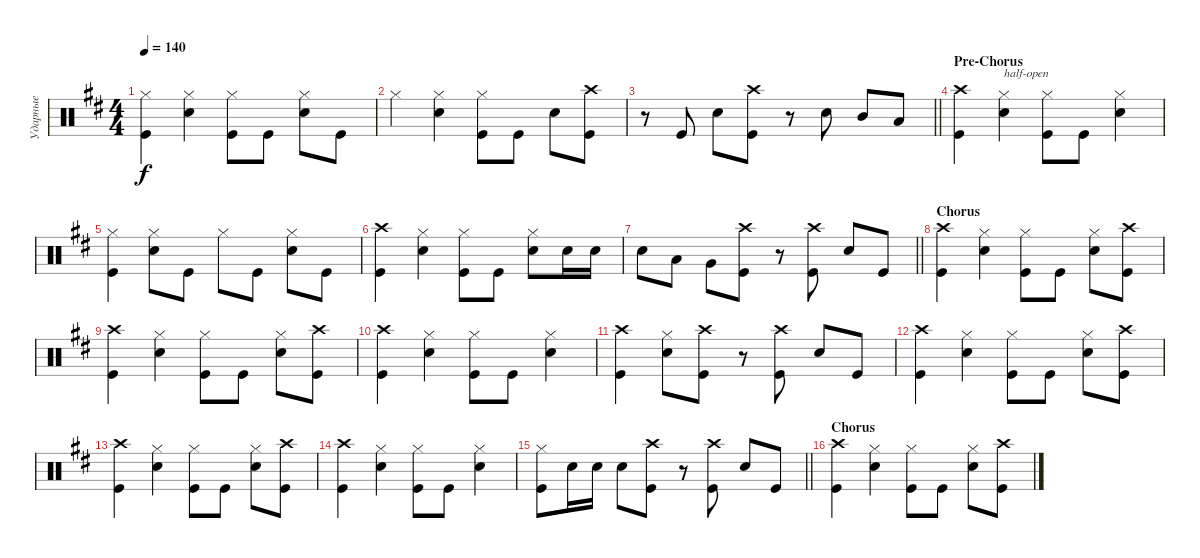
\track ("Ударные" "Ударные") {instrument percussion}
\staff {score}
\articulation defaults
\ts (4 4)
\tempo 140
\clef neutral
\ks bminor
("Kick (hit)" "Hi-Hat (closed)").4{dy f} ("Snare (hit) 2" "Hi-Hat (closed)").4 ("Kick (hit)" "Hi-Hat (closed)").8 "Kick (hit)".8 ("Snare (hit) 2" "Hi-Hat (closed)").8 "Kick (hit)".8 |
"Hi-Hat (closed)".4 ("Snare (hit) 2" "Hi-Hat (closed)").4 ("Kick (hit)" "Hi-Hat (closed)").8 "Kick (hit)".8 "Snare (hit) 2".8 ("Kick (hit)" "Crash high (hit)").8 |
\barLineRight lightlight
r.8 "Kick (hit)".8 "Snare (hit) 2".8 ("Kick (hit)" "Crash high (hit)").8 r.8 "Snare (hit) 2".8 "Mid Tom (hit)".8 "Low Tom (hit)".8 |
\section ("" "Pre-Chorus")
("Kick (hit)" "Crash high (hit)").4 ("Snare (hit) 2" "Hi-Hat (closed)").4{txt "half-open"} ("Kick (hit)" "Hi-Hat (closed)").8 "Kick (hit)".8 ("Snare (hit) 2" "Hi-Hat (closed)").4 |
("Kick (hit)" "Hi-Hat (closed)").4 ("Snare (hit) 2" "Hi-Hat (closed)").8 "Kick (hit)".8 "Hi-Hat (closed)".8 "Kick (hit)".8 ("Snare (hit) 2" "Hi-Hat (closed)").8 "Kick (hit)".8 |
("Kick (hit)" "Crash high (hit)").4 ("Snare (hit) 2" "Hi-Hat (closed)").4 ("Kick (hit)" "Hi-Hat (closed)").8 "Kick (hit)".8 ("Snare (hit) 2" "Hi-Hat (closed)").8 "Snare (hit) 2".16 "Snare (hit) 2".16 |
\barLineRight lightlight "Snare (hit) 2".8 "Low Tom (hit)".8 "Very Low Tom (hit)".8
("Kick (hit)" "Crash high (hit)").8 r.8 ("Kick (hit)" "Crash high (hit)").8 "Snare (hit) 2".8 "Kick (hit)".8 |
\section ("" "Chorus")
("Kick (hit)" "Crash high (hit)").4 ("Snare (hit) 2" "Hi-Hat (closed)").4 ("Kick (hit)" "Hi-Hat (closed)").8 "Kick (hit)".8 ("Snare (hit) 2" "Hi-Hat (closed)").8 ("Kick (hit)" "Crash high (hit)").8 |
("Kick (hit)" "Crash high (hit)").4 ("Snare (hit) 2" "Hi-Hat (closed)").4 ("Kick (hit)" "Hi-Hat (closed)").8 "Kick (hit)".8 ("Snare (hit) 2" "Hi-Hat (closed)").8 ("Kick (hit)" "Crash high (hit)").8 |
("Kick (hit)" "Crash high (hit)").4 ("Snare (hit) 2" "Hi-Hat (closed)").4 ("Kick (hit)" "Hi-Hat (closed)").8 "Kick (hit)".8 ("Snare (hit) 2" "Hi-Hat (closed)").4 |
("Kick (hit)" "Crash high (hit)").4 ("Snare (hit) 2" "Hi-Hat (closed)").8 ("Kick (hit)" "Crash high (hit)").8 r.8 ("Kick (hit)" "Crash high (hit)").8 "Snare (hit) 2".8 "Kick (hit)".8 |
("Kick (hit)" "Crash high (hit)").4 ("Snare (hit) 2" "Hi-Hat (closed)").4 ("Kick (hit)" "Hi-Hat (closed)").8 "Kick (hit)".8 ("Snare (hit) 2" "Hi-Hat (closed)").8 ("Kick (hit)" "Crash high (hit)").8 |
("Kick (hit)" "Crash high (hit)").4 ("Snare (hit) 2" "Hi-Hat (closed)").4 ("Kick (hit)" "Hi-Hat (closed)").8 "Kick (hit)".8 ("Snare (hit) 2" "Hi-Hat (closed)").8 ("Kick (hit)" "Crash high (hit)").8 |
("Kick (hit)" "Crash high (hit)").4 ("Snare (hit) 2" "Hi-Hat (closed)").4 ("Kick (hit)" "Hi-Hat (closed)").8 "Kick (hit)".8 ("Snare (hit) 2" "Hi-Hat (closed)").4 |
\barLineRight lightlight
("Kick (hit)" "Hi-Hat (closed)").8 "Snare (hit) 2".16 "Snare (hit) 2".16 "Snare (hit) 2".8 ("Kick (hit)" "Crash high (hit)").8 r.8 ("Kick (hit)" "Crash high (hit)").8 "Snare (hit) 2".8 "Kick (hit)".8 |
\section ("" "Chorus")
("Kick (hit)" "Crash high (hit)").4 ("Snare (hit) 2" "Hi-Hat (closed)").4 ("Kick (hit)" "Hi-Hat (closed)").8 "Kick (hit)".8 ("Snare (hit) 2" "Hi-Hat (closed)").8 ("Kick (hit)" "Crash high (hit)").8
